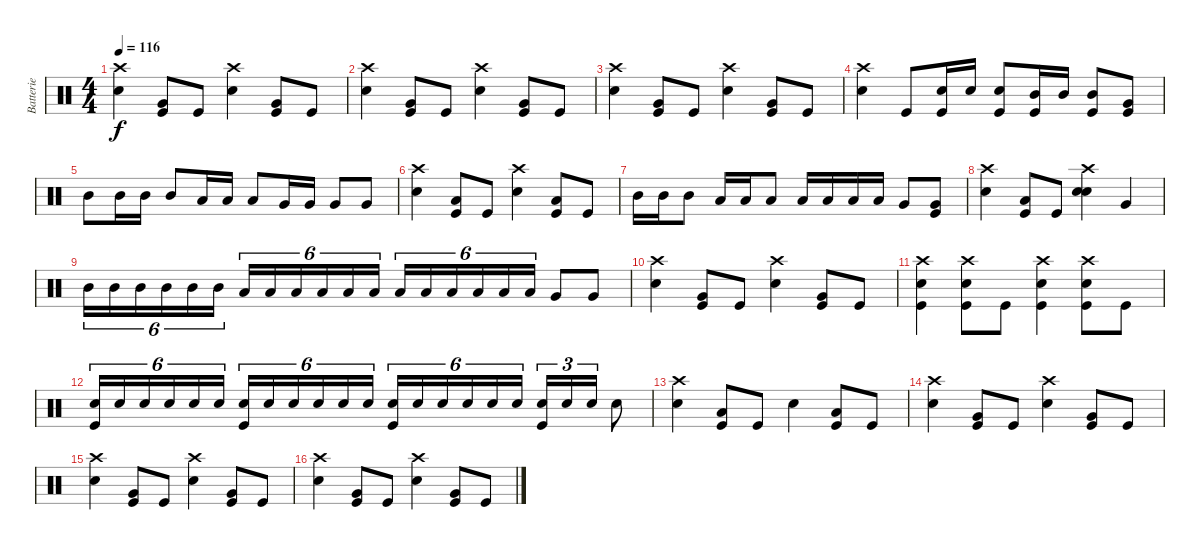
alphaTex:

\track ("Batterie" "Batterie") {instrument percussion}
\staff {score}
\articulation defaults
\ts (4 4)
\tempo 116
\clef neutral
\ks c
("Crash high (hit)" "Snare (hit) 2").4{dy f} ("Very Low Tom (hit)" "Kick (hit)").8 "Kick (hit)".8 ("Crash high (hit)" "Snare (hit) 2").4 ("Very Low Tom (hit)" "Kick (hit)").8 "Kick (hit)".8 |
("Crash high (hit)" "Snare (hit) 2").4 ("Very Low Tom (hit)" "Kick (hit)").8 "Kick (hit)".8 ("Crash high (hit)" "Snare (hit) 2").4 ("Very Low Tom (hit)" "Kick (hit)").8 "Kick (hit)".8 |
("Crash high (hit)" "Snare (hit) 2").4 ("Very Low Tom (hit)" "Kick (hit)").8 "Kick (hit)".8 ("Crash high (hit)" "Snare (hit) 2").4 ("Very Low Tom (hit)" "Kick (hit)").8 "Kick (hit)".8 |
("Crash high (hit)" "Snare (hit) 2").4 "Kick (hit)".8 ("Snare (hit) 2" "Kick (hit)").16 "Snare (hit) 2".16 ("Snare (hit) 2" "Kick (hit)").8 ("Mid Tom (hit)" "Kick (hit)").16 "Mid Tom (hit)".16 ("Mid Tom (hit)" "Kick (hit)").8 ("Very Low Tom (hit)" "Kick (hit)").8 |
"Mid Tom (hit)".8 "Mid Tom (hit)".16 "Mid Tom (hit)".16 "Mid Tom (hit)".8 "Low Tom (hit)".16 "Low Tom (hit)".16 "Low Tom (hit)".8 "Very Low Tom (hit)".16 "Very Low Tom (hit)".16 "Very Low Tom (hit)".8 "Very Low Tom (hit)".8 |
("Crash high (hit)" "Snare (hit) 2").4 ("Low Tom (hit)" "Kick (hit)").8 "Kick (hit)".8 ("Crash high (hit)" "Snare (hit) 2").4 ("Low Tom (hit)" "Kick (hit)").8 "Kick (hit)".8 |
"Mid Tom (hit)".16 "Mid Tom (hit)".16 "Mid Tom (hit)".8 "Low Tom (hit)".16 "Low Tom (hit)".16 "Low Tom (hit)".8 "Low Tom (hit)".16 "Low Tom (hit)".16 "Low Tom (hit)".16 "Low Tom (hit)".16 "Very Low Tom (hit)".8 ("Very Low Tom (hit)" "Kick (hit)").8 |
("Crash high (hit)" "Snare (hit) 2").4 ("Low Tom (hit)" "Kick (hit)").8 "Kick (hit)".8 ("Crash high (hit)" "Snare (hit) 2" "Snare (hit) 2").4 "Very Low Tom (hit)".4 |
"Mid Tom (hit)".16{tu (6 4)} "Mid Tom (hit)".16{tu (6 4)} "Mid Tom (hit)".16{tu (6 4)} "Mid Tom (hit)".16{tu (6 4)} "Mid Tom (hit)".16{tu (6 4)} "Mid Tom (hit)".16{tu (6 4)} "Low Tom (hit)".16{tu (6 4)} "Low Tom (hit)".16{tu (6 4)} "Low Tom (hit)".16{tu (6 4)} "Low Tom (hit)".16{tu (6 4)} "Low Tom (hit)".16{tu (6 4)} "Low Tom (hit)".16{tu (6 4)} "Low Tom (hit)".16{tu (6 4)} "Low Tom (hit)".16{tu (6 4)} "Low Tom (hit)".16{tu (6 4)} "Low Tom (hit)".16{tu (6 4)} "Low Tom (hit)".16{tu (6 4)} "Low Tom (hit)".16{tu (6 4)} "Very Low Tom (hit)".8 "Very Low Tom (hit)".8 |
("Crash high (hit)" "Snare (hit) 2").4 ("Very Low Tom (hit)" "Kick (hit)").8 "Kick (hit)".8 ("Crash high (hit)" "Snare (hit) 2").4 ("Very Low Tom (hit)" "Kick (hit)").8 "Kick (hit)".8 |
("Crash high (hit)" "Kick (hit)" "Snare (hit) 2").4 ("Crash high (hit)" "Snare (hit) 2" "Kick (hit)").8 "Kick (hit)".8 ("Crash high (hit)" "Kick (hit)" "Snare (hit) 2").4 ("Crash high (hit)" "Snare (hit) 2" "Kick (hit)").8 "Kick (hit)".8 |
("Snare (hit) 2" "Kick (hit)").16{tu (6 4)} "Snare (hit) 2".16{tu (6 4)} "Snare (hit) 2".16{tu (6 4)} "Snare (hit) 2".16{tu (6 4)} "Snare (hit) 2".16{tu (6 4)} "Snare (hit) 2".16{tu (6 4)} ("Snare (hit) 2" "Kick (hit)").16{tu (6 4)} "Snare (hit) 2".16{tu (6 4)} "Snare (hit) 2".16{tu (6 4)} "Snare (hit) 2".16{tu (6 4)} "Snare (hit) 2".16{tu (6 4)} "Snare (hit) 2".16{tu (6 4)} ("Snare (hit) 2" "Kick (hit)").16{tu (6 4)} "Snare (hit) 2".16{tu (6 4)} "Snare (hit) 2".16{tu (6 4)} "Snare (hit) 2".16{tu (6 4)} "Snare (hit) 2".16{tu (6 4)} "Snare (hit) 2".16{tu (6 4)} ("Snare (hit) 2" "Kick (hit)").16{tu (3 2)} "Snare (hit) 2".16{tu (3 2)} "Snare (hit) 2".16{tu (3 2)} "Snare (hit) 2".8 |
("Crash high (hit)" "Snare (hit) 2").4 ("Low Tom (hit)" "Kick (hit)").8 "Kick (hit)".8 "Snare (hit) 2".4 ("Low Tom (hit)" "Kick (hit)").8 "Kick (hit)".8 |
("Crash high (hit)" "Snare (hit) 2").4 ("Very Low Tom (hit)" "Kick (hit)").8 "Kick (hit)".8 ("Crash high (hit)" "Snare (hit) 2").4 ("Very Low Tom (hit)" "Kick (hit)").8 "Kick (hit)".8 |
("Crash high (hit)" "Snare (hit) 2").4 ("Very Low Tom (hit)" "Kick (hit)").8 "Kick (hit)".8 ("Crash high (hit)" "Snare (hit) 2").4 ("Very Low Tom (hit)" "Kick (hit)").8 "Kick (hit)".8 |
("Crash high (hit)" "Snare (hit) 2").4 ("Very Low Tom (hit)" "Kick (hit)").8 "Kick (hit)".8 ("Crash high (hit)" "Snare (hit) 2").4 ("Very Low Tom (hit)" "Kick (hit)").8 "Kick (hit)".8
